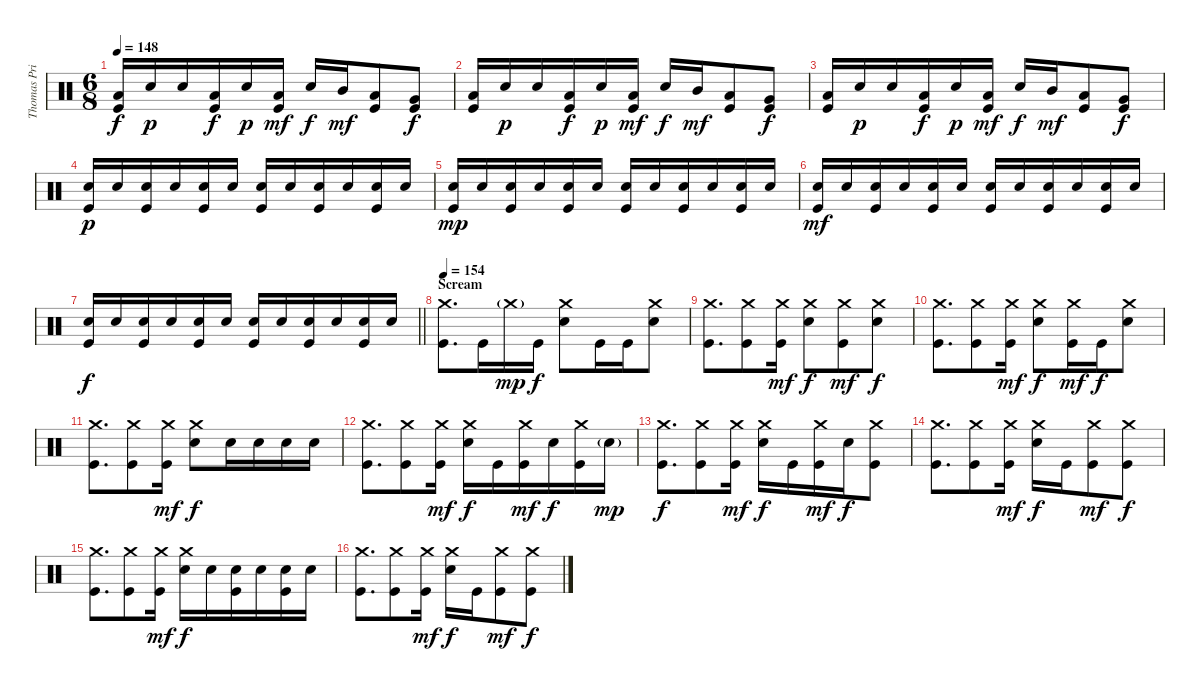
\track ("Thomas Pridgen" "Thomas Pri") {instrument percussion}
\staff {score}
\articulation defaults
\ts (6 8)
\tempo 148
\clef neutral
\ks c
("Low Floor Tom (hit)" "Kick (hit)").16{dy f} "Snare (hit) 2".16{dy p} "Snare (hit) 2".16 ("Low Floor Tom (hit)" "Kick (hit)").16{dy f} "Snare (hit) 2".16{dy p} ("Low Floor Tom (hit)" "Kick (hit)").16{dy mf} "Snare (hit) 2".16{dy f} "Mid Tom (hit)".16{dy mf} ("Low Tom (hit)" "Kick (hit)").8 ("Very Low Tom (hit)" "Kick (hit)").8{dy f} |
("Low Floor Tom (hit)" "Kick (hit)").16 "Snare (hit) 2".16{dy p} "Snare (hit) 2".16 ("Low Floor Tom (hit)" "Kick (hit)").16{dy f} "Snare (hit) 2".16{dy p} ("Low Floor Tom (hit)" "Kick (hit)").16{dy mf} "Snare (hit) 2".16{dy f} "Mid Tom (hit)".16{dy mf} ("Low Tom (hit)" "Kick (hit)").8 ("Very Low Tom (hit)" "Kick (hit)").8{dy f} |
("Low Floor Tom (hit)" "Kick (hit)").16 "Snare (hit) 2".16{dy p} "Snare (hit) 2".16 ("Low Floor Tom (hit)" "Kick (hit)").16{dy f} "Snare (hit) 2".16{dy p} ("Low Floor Tom (hit)" "Kick (hit)").16{dy mf} "Snare (hit) 2".16{dy f} "Mid Tom (hit)".16{dy mf} ("Low Tom (hit)" "Kick (hit)").8 ("Very Low Tom (hit)" "Kick (hit)").8{dy f} |
("Snare (hit) 2" "Kick (hit)").16{dy p} "Snare (hit) 2".16 ("Snare (hit) 2" "Kick (hit)").16 "Snare (hit) 2".16 ("Snare (hit) 2" "Kick (hit)").16 "Snare (hit) 2".16 ("Snare (hit) 2" "Kick (hit)").16 "Snare (hit) 2".16 ("Snare (hit) 2" "Kick (hit)").16 "Snare (hit) 2".16 ("Snare (hit) 2" "Kick (hit)").16 "Snare (hit) 2".16 |
("Snare (hit) 2" "Kick (hit)").16{dy mp} "Snare (hit) 2".16 ("Snare (hit) 2" "Kick (hit)").16 "Snare (hit) 2".16 ("Snare (hit) 2" "Kick (hit)").16 "Snare (hit) 2".16 ("Snare (hit) 2" "Kick (hit)").16 "Snare (hit) 2".16 ("Snare (hit) 2" "Kick (hit)").16 "Snare (hit) 2".16 ("Snare (hit) 2" "Kick (hit)").16 "Snare (hit) 2".16 |
("Snare (hit) 2" "Kick (hit)").16{dy mf} "Snare (hit) 2".16 ("Snare (hit) 2" "Kick (hit)").16 "Snare (hit) 2".16 ("Snare (hit) 2" "Kick (hit)").16 "Snare (hit) 2".16 ("Snare (hit) 2" "Kick (hit)").16 "Snare (hit) 2".16 ("Snare (hit) 2" "Kick (hit)").16 "Snare (hit) 2".16 ("Snare (hit) 2" "Kick (hit)").16 "Snare (hit) 2".16 |
\barLineRight lightlight
("Snare (hit) 2" "Kick (hit)").16{dy f} "Snare (hit) 2".16 ("Snare (hit) 2" "Kick (hit)").16 "Snare (hit) 2".16 ("Snare (hit) 2" "Kick (hit)").16 "Snare (hit) 2".16 ("Snare (hit) 2" "Kick (hit)").16 "Snare (hit) 2".16 ("Snare (hit) 2" "Kick (hit)").16 "Snare (hit) 2".16 ("Snare (hit) 2" "Kick (hit)").16 "Snare (hit) 2".16 |
\section ("" "Scream")
\tempo 154
("Crash medium (hit)" "Kick (hit)").8{d} "Kick (hit)".16 "Crash medium (hit)"{g}.16{dy mp} "Kick (hit)".16{dy f} ("Crash medium (hit)" "Snare (hit) 2").8 "Kick (hit)".16 "Kick (hit)".16 ("Crash medium (hit)" "Snare (hit) 2").8 |
("Crash medium (hit)" "Kick (hit)").8{d} ("Crash medium (hit)" "Kick (hit)").8 ("Crash medium (hit)" "Kick (hit)").16{dy mf} ("Crash medium (hit)" "Snare (hit) 2").8{dy f} ("Crash medium (hit)" "Kick (hit)").8{dy mf} ("Crash medium (hit)" "Snare (hit) 2").8{dy f} |
("Crash medium (hit)" "Kick (hit)").8{d} ("Crash medium (hit)" "Kick (hit)").8 ("Crash medium (hit)" "Kick (hit)").16{dy mf} ("Crash medium (hit)" "Snare (hit) 2").8{dy f} ("Crash medium (hit)" "Kick (hit)").16{dy mf} "Kick (hit)".16{dy f} ("Crash medium (hit)" "Snare (hit) 2").8 |
("Crash medium (hit)" "Kick (hit)").8{d} ("Crash medium (hit)" "Kick (hit)").8 ("Crash medium (hit)" "Kick (hit)").16{dy mf} ("Crash medium (hit)" "Snare (hit) 2").8{dy f} "Snare (hit) 2".16 "Snare (hit) 2".16 "Snare (hit) 2".16 "Snare (hit) 2".16 |
("Crash medium (hit)" "Kick (hit)").8{d} ("Crash medium (hit)" "Kick (hit)").8 ("Crash medium (hit)" "Kick (hit)").16{dy mf} ("Crash medium (hit)" "Snare (hit) 2").16{dy f} "Kick (hit)".16 ("Crash medium (hit)" "Kick (hit)").16{dy mf} "Snare (hit) 2".16{dy f} ("Crash medium (hit)" "Kick (hit)").16 "Snare (hit) 2"{g}.16{dy mp} |
("Crash medium (hit)" "Kick (hit)").8{d dy f} ("Crash medium (hit)" "Kick (hit)").8 ("Crash medium (hit)" "Kick (hit)").16{dy mf} ("Crash medium (hit)" "Snare (hit) 2").16{dy f} "Kick (hit)".16 ("Crash medium (hit)" "Kick (hit)").16{dy mf} "Snare (hit) 2".16{dy f} ("Crash medium (hit)" "Kick (hit)").8 |
("Crash medium (hit)" "Kick (hit)").8{d} ("Crash medium (hit)" "Kick (hit)").8 ("Crash medium (hit)" "Kick (hit)").16{dy mf} ("Crash medium (hit)" "Snare (hit) 2").16{dy f} "Kick (hit)".16 ("Crash medium (hit)" "Kick (hit)").8{dy mf} ("Crash medium (hit)" "Kick (hit)").8{dy f} |
("Crash medium (hit)" "Kick (hit)").8{d} ("Crash medium (hit)" "Kick (hit)").8 ("Crash medium (hit)" "Kick (hit)").16{dy mf} ("Crash medium (hit)" "Snare (hit) 2").16{dy f} "Snare (hit) 2".16 ("Snare (hit) 2" "Kick (hit)").16 "Snare (hit) 2".16 ("Snare (hit) 2" "Kick (hit)").16 "Snare (hit) 2".16 |
("Crash medium (hit)" "Kick (hit)").8{d} ("Crash medium (hit)" "Kick (hit)").8 ("Crash medium (hit)" "Kick (hit)").16{dy mf} ("Crash medium (hit)" "Snare (hit) 2").16{dy f} "Kick (hit)".16 ("Crash medium (hit)" "Kick (hit)").8{dy mf} ("Crash medium (hit)" "Kick (hit)").8{dy f}
